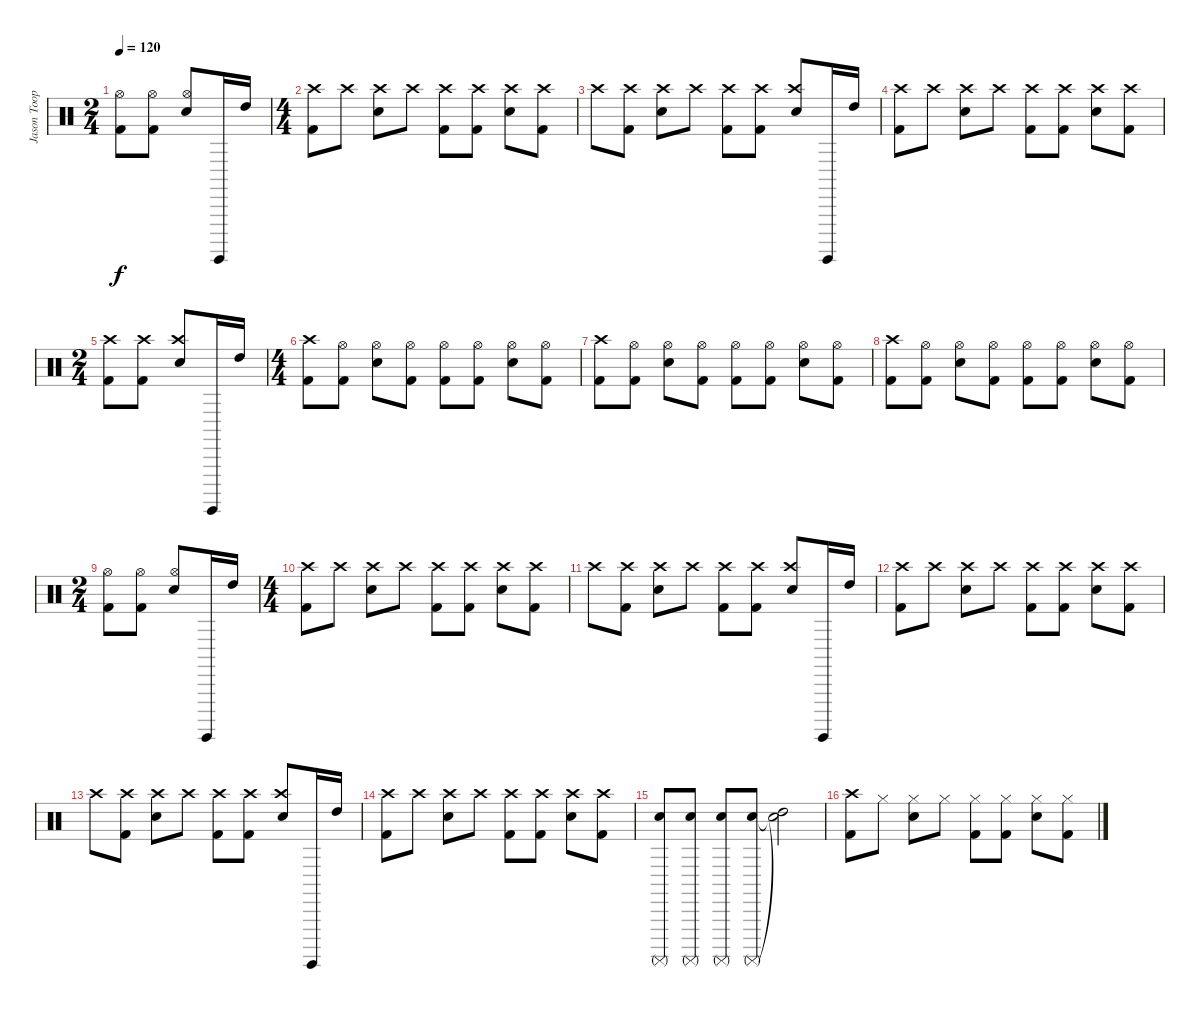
\track ("Jason Toop Cooper" "Jason Toop") {instrument percussion}
\staff {score}
\articulation defaults
\ts (2 4)
\tempo 120
\clef neutral
\ks c
("Hi-Hat (open)" "Kick (hit) 2").8{dy f} ("Hi-Hat (open)"{x} "Kick (hit) 2").8 ("Hi-Hat (open)" "Electric Snare (hit)").8 "Surdo (hit)".16 "High Tom (hit)".16 |
\ts (4 4)
("Crash high (hit)" "Kick (hit) 2").8 "Crash high (hit)".8 ("Crash high (hit)" "Electric Snare (hit)").8 "Crash high (hit)".8 ("Crash high (hit)" "Kick (hit) 2").8 ("Crash high (hit)" "Kick (hit) 2").8 ("Crash high (hit)" "Electric Snare (hit)").8 ("Crash high (hit)" "Kick (hit) 2").8 |
"Crash high (hit)".8 ("Crash high (hit)" "Kick (hit) 2").8 ("Crash high (hit)" "Electric Snare (hit)").8 "Crash high (hit)".8 ("Crash high (hit)" "Kick (hit) 2").8 ("Crash high (hit)" "Kick (hit) 2").8 ("Crash high (hit)" "Electric Snare (hit)").8 "Surdo (hit)".16 "High Tom (hit)".16 |
("Crash high (hit)" "Kick (hit) 2").8 "Crash high (hit)".8 ("Crash high (hit)" "Electric Snare (hit)").8 "Crash high (hit)".8 ("Crash high (hit)" "Kick (hit) 2").8 ("Crash high (hit)" "Kick (hit) 2").8 ("Crash high (hit)" "Electric Snare (hit)").8 ("Crash high (hit)" "Kick (hit) 2").8 |
\ts (2 4)
("Crash high (hit)" "Kick (hit) 2").8 ("Crash high (hit)" "Kick (hit) 2").8 ("Crash high (hit)" "Electric Snare (hit)").8 "Surdo (hit)".16 "High Tom (hit)".16 |
\ts (4 4)
("Crash high (hit)" "Kick (hit) 2").8 ("Hi-Hat (open)"{x} "Kick (hit) 2").8 ("Hi-Hat (open)" "Electric Snare (hit)").8 ("Hi-Hat (open)"{x} "Kick (hit) 2").8 ("Hi-Hat (open)" "Kick (hit) 2").8 ("Hi-Hat (open)"{x} "Kick (hit) 2").8 ("Hi-Hat (open)" "Electric Snare (hit)").8 ("Hi-Hat (open)"{x} "Kick (hit) 2").8 |
("Crash high (hit)" "Kick (hit) 2").8 ("Hi-Hat (open)"{x} "Kick (hit) 2").8 ("Hi-Hat (open)" "Electric Snare (hit)").8 ("Hi-Hat (open)"{x} "Kick (hit) 2").8 ("Hi-Hat (open)" "Kick (hit) 2").8 ("Hi-Hat (open)"{x} "Kick (hit) 2").8 ("Hi-Hat (open)" "Electric Snare (hit)").8 ("Hi-Hat (open)"{x} "Kick (hit) 2").8 |
("Crash high (hit)" "Kick (hit) 2").8 ("Hi-Hat (open)"{x} "Kick (hit) 2").8 ("Hi-Hat (open)" "Electric Snare (hit)").8 ("Hi-Hat (open)"{x} "Kick (hit) 2").8 ("Hi-Hat (open)" "Kick (hit) 2").8 ("Hi-Hat (open)"{x} "Kick (hit) 2").8 ("Hi-Hat (open)" "Electric Snare (hit)").8 ("Hi-Hat (open)"{x} "Kick (hit) 2").8 |
\ts (2 4)
("Hi-Hat (open)" "Kick (hit) 2").8 ("Hi-Hat (open)"{x} "Kick (hit) 2").8 ("Hi-Hat (open)" "Electric Snare (hit)").8 "Surdo (hit)".16 "High Tom (hit)".16 |
\ts (4 4)
("Crash high (hit)" "Kick (hit) 2").8 "Crash high (hit)".8 ("Crash high (hit)" "Electric Snare (hit)").8 "Crash high (hit)".8 ("Crash high (hit)" "Kick (hit) 2").8 ("Crash high (hit)" "Kick (hit) 2").8 ("Crash high (hit)" "Electric Snare (hit)").8 ("Crash high (hit)" "Kick (hit) 2").8 |
"Crash high (hit)".8 ("Crash high (hit)" "Kick (hit) 2").8 ("Crash high (hit)" "Electric Snare (hit)").8 "Crash high (hit)".8 ("Crash high (hit)" "Kick (hit) 2").8 ("Crash high (hit)" "Kick (hit) 2").8 ("Crash high (hit)" "Electric Snare (hit)").8 "Surdo (hit)".16 "High Tom (hit)".16 |
("Crash high (hit)" "Kick (hit) 2").8 "Crash high (hit)".8 ("Crash high (hit)" "Electric Snare (hit)").8 "Crash high (hit)".8 ("Crash high (hit)" "Kick (hit) 2").8 ("Crash high (hit)" "Kick (hit) 2").8 ("Crash high (hit)" "Electric Snare (hit)").8 ("Crash high (hit)" "Kick (hit) 2").8 |
"Crash high (hit)".8 ("Crash high (hit)" "Kick (hit) 2").8 ("Crash high (hit)" "Electric Snare (hit)").8 "Crash high (hit)".8 ("Crash high (hit)" "Kick (hit) 2").8 ("Crash high (hit)" "Kick (hit) 2").8 ("Crash high (hit)" "Electric Snare (hit)").8 "Surdo (hit)".16 "High Tom (hit)".16 |
("Crash high (hit)" "Kick (hit) 2").8 "Crash high (hit)".8 ("Crash high (hit)" "Electric Snare (hit)").8 "Crash high (hit)".8 ("Crash high (hit)" "Kick (hit) 2").8 ("Crash high (hit)" "Kick (hit) 2").8 ("Crash high (hit)" "Electric Snare (hit)").8 ("Crash high (hit)" "Kick (hit) 2").8 |
("Surdo (mute)" "Electric Snare (hit)").8 ("Surdo (mute)" "Electric Snare (hit)").8 ("Surdo (mute)" "Electric Snare (hit)").8 ("Surdo (mute)" "Electric Snare (hit)").8 ("High Tom (hit)"{t} "Snare (hit)"{t}).2 |
("Crash high (hit)" "Kick (hit) 2").8 "Hi-Hat (closed)".8 ("Hi-Hat (closed)" "Electric Snare (hit)").8 "Hi-Hat (closed)".8 ("Hi-Hat (closed)" "Kick (hit) 2").8 ("Hi-Hat (closed)" "Kick (hit) 2").8 ("Hi-Hat (closed)" "Electric Snare (hit)").8 ("Hi-Hat (closed)" "Kick (hit) 2").8
